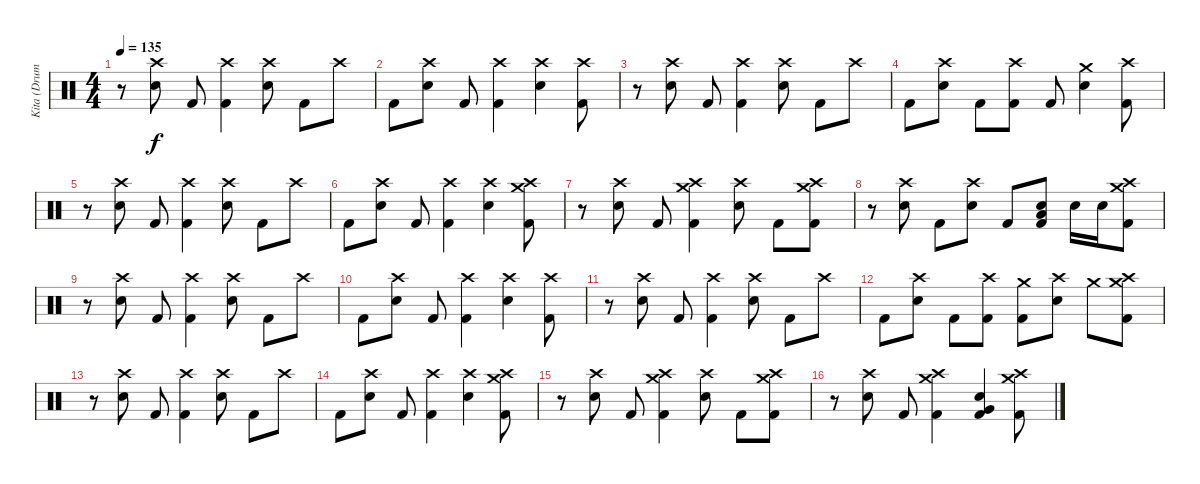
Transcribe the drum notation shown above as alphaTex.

\track ("Kita (Drums)" "Kita (Drum") {instrument percussion}
\staff {score}
\articulation defaults
\ts (4 4)
\tempo 135
\clef neutral
\ks c
r.8{dy f} ("Crash high (hit)" "Electric Snare (hit)").8 "Kick (hit) 2".8 ("Crash high (hit)" "Kick (hit) 2").4 ("Crash high (hit)" "Electric Snare (hit)").8 "Kick (hit) 2".8 "Crash high (hit)".8 |
"Kick (hit) 2".8 ("Crash high (hit)" "Electric Snare (hit)").8 "Kick (hit) 2".8 ("Crash high (hit)" "Kick (hit) 2").4 ("Crash high (hit)" "Electric Snare (hit)").4 ("Crash high (hit)" "Kick (hit) 2").8 |
r.8 ("Crash high (hit)" "Electric Snare (hit)").8 "Kick (hit) 2".8 ("Crash high (hit)" "Kick (hit) 2").4 ("Crash high (hit)" "Electric Snare (hit)").8 "Kick (hit) 2".8 "Crash high (hit)".8 |
"Kick (hit) 2".8 ("Crash high (hit)" "Electric Snare (hit)").8 "Kick (hit) 2".8 ("Crash high (hit)" "Kick (hit) 2").8 "Kick (hit) 2".8 ("Crash medium (hit)" "Electric Snare (hit)").4 ("Crash high (hit)" "Kick (hit) 2").8 |
r.8 ("Crash high (hit)" "Electric Snare (hit)").8 "Kick (hit) 2".8 ("Crash high (hit)" "Kick (hit) 2").4 ("Crash high (hit)" "Electric Snare (hit)").8 "Kick (hit) 2".8 "Crash high (hit)".8 |
"Kick (hit) 2".8 ("Crash high (hit)" "Electric Snare (hit)").8 "Kick (hit) 2".8 ("Crash high (hit)" "Kick (hit) 2").4 ("Crash high (hit)" "Electric Snare (hit)").4 ("Crash medium (hit)" "Crash high (hit)" "Kick (hit) 2").8 |
r.8 ("Crash high (hit)" "Electric Snare (hit)").8 "Kick (hit) 2".8 ("Crash medium (hit)" "Crash high (hit)" "Kick (hit) 2").4 ("Crash high (hit)" "Electric Snare (hit)").8 "Kick (hit) 2".8 ("Crash medium (hit)" "Crash high (hit)" "Kick (hit) 2").8 |
r.8 ("Crash high (hit)" "Electric Snare (hit)").8 "Kick (hit) 2".8 ("Crash high (hit)" "Electric Snare (hit)").8 "Kick (hit) 2".8 ("Low Floor Tom (hit)" "Electric Snare (hit)" "Kick (hit) 2").8 "Electric Snare (hit)".16 "Electric Snare (hit)".16 ("Crash medium (hit)" "Crash high (hit)" "Kick (hit) 2").8 |
r.8 ("Crash high (hit)" "Electric Snare (hit)").8 "Kick (hit) 2".8 ("Crash high (hit)" "Kick (hit) 2").4 ("Crash high (hit)" "Electric Snare (hit)").8 "Kick (hit) 2".8 "Crash high (hit)".8 |
"Kick (hit) 2".8 ("Crash high (hit)" "Electric Snare (hit)").8 "Kick (hit) 2".8 ("Crash high (hit)" "Kick (hit) 2").4 ("Crash high (hit)" "Electric Snare (hit)").4 ("Crash high (hit)" "Kick (hit) 2").8 |
r.8 ("Crash high (hit)" "Electric Snare (hit)").8 "Kick (hit) 2".8 ("Crash high (hit)" "Kick (hit) 2").4 ("Crash high (hit)" "Electric Snare (hit)").8 "Kick (hit) 2".8 "Crash high (hit)".8 |
"Kick (hit) 2".8 ("Crash high (hit)" "Electric Snare (hit)").8 "Kick (hit) 2".8 ("Crash high (hit)" "Kick (hit) 2").8 ("Crash medium (hit)" "Kick (hit) 2").8 ("Crash high (hit)" "Electric Snare (hit)").8 "Crash medium (hit)".8 ("Crash medium (hit)" "Crash high (hit)" "Kick (hit) 2").8 |
r.8 ("Crash high (hit)" "Electric Snare (hit)").8 "Kick (hit) 2".8 ("Crash high (hit)" "Kick (hit) 2").4 ("Crash high (hit)" "Electric Snare (hit)").8 "Kick (hit) 2".8 "Crash high (hit)".8 |
"Kick (hit) 2".8 ("Crash high (hit)" "Electric Snare (hit)").8 "Kick (hit) 2".8 ("Crash high (hit)" "Kick (hit) 2").4 ("Crash high (hit)" "Electric Snare (hit)").4 ("Crash medium (hit)" "Crash high (hit)" "Kick (hit) 2").8 |
r.8 ("Crash high (hit)" "Electric Snare (hit)").8 "Kick (hit) 2".8 ("Crash medium (hit)" "Crash high (hit)" "Kick (hit) 2").4 ("Crash high (hit)" "Electric Snare (hit)").8 "Kick (hit) 2".8 ("Crash medium (hit)" "Crash high (hit)" "Kick (hit) 2").8 |
r.8 ("Crash high (hit)" "Electric Snare (hit)").8 "Kick (hit) 2".8 ("Crash medium (hit)" "Crash high (hit)" "Kick (hit) 2").4 ("Very Low Tom (hit)" "Electric Snare (hit)" "Kick (hit) 2").4 ("Crash medium (hit)" "Crash high (hit)" "Kick (hit) 2").8
